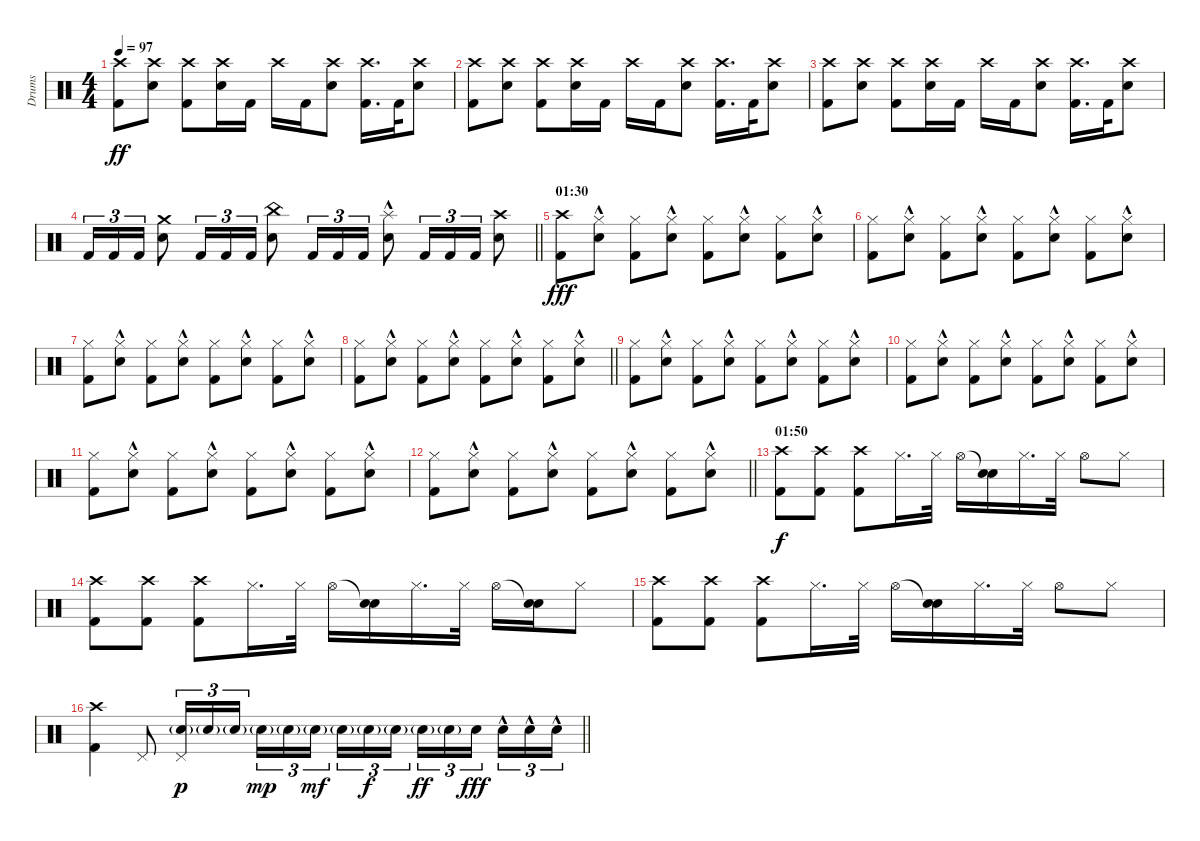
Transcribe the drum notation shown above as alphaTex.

\track ("Drums" "Drums") {instrument percussion}
\staff {score}
\articulation defaults
\ts (4 4)
\tempo 97
\clef neutral
\ks c
("Crash high (hit)" "Kick (hit) 2").8{dy ff} ("Crash high (hit)" "Electric Snare (hit)").8 ("Crash high (hit)" "Kick (hit) 2").8 ("Crash high (hit)" "Electric Snare (hit)").16 "Kick (hit) 2".16 "Crash high (hit)".16 "Kick (hit) 2".16 ("Crash high (hit)" "Electric Snare (hit)").8 ("Crash high (hit)" "Kick (hit) 2").16{d} "Kick (hit) 2".32 ("Crash high (hit)" "Electric Snare (hit)").8 |
("Crash high (hit)" "Kick (hit) 2").8 ("Crash high (hit)" "Electric Snare (hit)").8 ("Crash high (hit)" "Kick (hit) 2").8 ("Crash high (hit)" "Electric Snare (hit)").16 "Kick (hit) 2".16 "Crash high (hit)".16 "Kick (hit) 2".16 ("Crash high (hit)" "Electric Snare (hit)").8 ("Crash high (hit)" "Kick (hit) 2").16{d} "Kick (hit) 2".32 ("Crash high (hit)" "Electric Snare (hit)").8 |
("Crash high (hit)" "Kick (hit) 2").8 ("Crash high (hit)" "Electric Snare (hit)").8 ("Crash high (hit)" "Kick (hit) 2").8 ("Crash high (hit)" "Electric Snare (hit)").16 "Kick (hit) 2".16 "Crash high (hit)".16 "Kick (hit) 2".16 ("Crash high (hit)" "Electric Snare (hit)").8 ("Crash high (hit)" "Kick (hit) 2").16{d} "Kick (hit) 2".32 ("Crash high (hit)" "Electric Snare (hit)").8 |
\barLineRight lightlight "Kick (hit) 2".16{tu (3 2)} "Kick (hit) 2".16{tu (3 2)} "Kick (hit) 2".16{tu (3 2)}
("Crash medium (hit)" "Electric Snare (hit)").8 "Kick (hit) 2".16{tu (3 2)} "Kick (hit) 2".16{tu (3 2)} "Kick (hit) 2".16{tu (3 2)} ("China (hit)" "Electric Snare (hit)").8 "Kick (hit) 2".16{tu (3 2)} "Kick (hit) 2".16{tu (3 2)} "Kick (hit) 2".16{tu (3 2)} ("Splash (hit)"{hac} "Electric Snare (hit)").8 "Kick (hit) 2".16{tu (3 2)} "Kick (hit) 2".16{tu (3 2)} "Kick (hit) 2".16{tu (3 2)} ("Crash high (hit)" "Electric Snare (hit)").8 |
\section ("" "01:30")
("Crash high (hit)" "Kick (hit) 2").8{dy fff} ("Hi-Hat (closed)" "Electric Snare (hit)"{hac}).8 ("Hi-Hat (closed)" "Kick (hit) 2").8 ("Hi-Hat (closed)" "Electric Snare (hit)"{hac}).8 ("Hi-Hat (closed)" "Kick (hit) 2").8 ("Hi-Hat (closed)" "Electric Snare (hit)"{hac}).8 ("Hi-Hat (closed)" "Kick (hit) 2").8 ("Hi-Hat (closed)" "Electric Snare (hit)"{hac}).8 |
("Hi-Hat (closed)" "Kick (hit) 2").8 ("Hi-Hat (closed)" "Electric Snare (hit)"{hac}).8 ("Hi-Hat (closed)" "Kick (hit) 2").8 ("Hi-Hat (closed)" "Electric Snare (hit)"{hac}).8 ("Hi-Hat (closed)" "Kick (hit) 2").8 ("Hi-Hat (closed)" "Electric Snare (hit)"{hac}).8 ("Hi-Hat (closed)" "Kick (hit) 2").8 ("Hi-Hat (closed)" "Electric Snare (hit)"{hac}).8 |
("Hi-Hat (closed)" "Kick (hit) 2").8 ("Hi-Hat (closed)" "Electric Snare (hit)"{hac}).8 ("Hi-Hat (closed)" "Kick (hit) 2").8 ("Hi-Hat (closed)" "Electric Snare (hit)"{hac}).8 ("Hi-Hat (closed)" "Kick (hit) 2").8 ("Hi-Hat (closed)" "Electric Snare (hit)"{hac}).8 ("Hi-Hat (closed)" "Kick (hit) 2").8 ("Hi-Hat (closed)" "Electric Snare (hit)"{hac}).8 |
\barLineRight lightlight
("Hi-Hat (closed)" "Kick (hit) 2").8 ("Hi-Hat (closed)" "Electric Snare (hit)"{hac}).8 ("Hi-Hat (closed)" "Kick (hit) 2").8 ("Hi-Hat (closed)" "Electric Snare (hit)"{hac}).8 ("Hi-Hat (closed)" "Kick (hit) 2").8 ("Hi-Hat (closed)" "Electric Snare (hit)"{hac}).8 ("Hi-Hat (closed)" "Kick (hit) 2").8 ("Hi-Hat (closed)" "Electric Snare (hit)"{hac}).8 |
("Hi-Hat (closed)" "Kick (hit) 2").8 ("Hi-Hat (closed)" "Electric Snare (hit)"{hac}).8 ("Hi-Hat (closed)" "Kick (hit) 2").8 ("Hi-Hat (closed)" "Electric Snare (hit)"{hac}).8 ("Hi-Hat (closed)" "Kick (hit) 2").8 ("Hi-Hat (closed)" "Electric Snare (hit)"{hac}).8 ("Hi-Hat (closed)" "Kick (hit) 2").8 ("Hi-Hat (closed)" "Electric Snare (hit)"{hac}).8 |
("Hi-Hat (closed)" "Kick (hit) 2").8 ("Hi-Hat (closed)" "Electric Snare (hit)"{hac}).8 ("Hi-Hat (closed)" "Kick (hit) 2").8 ("Hi-Hat (closed)" "Electric Snare (hit)"{hac}).8 ("Hi-Hat (closed)" "Kick (hit) 2").8 ("Hi-Hat (closed)" "Electric Snare (hit)"{hac}).8 ("Hi-Hat (closed)" "Kick (hit) 2").8 ("Hi-Hat (closed)" "Electric Snare (hit)"{hac}).8 |
("Hi-Hat (closed)" "Kick (hit) 2").8 ("Hi-Hat (closed)" "Electric Snare (hit)"{hac}).8 ("Hi-Hat (closed)" "Kick (hit) 2").8 ("Hi-Hat (closed)" "Electric Snare (hit)"{hac}).8 ("Hi-Hat (closed)" "Kick (hit) 2").8 ("Hi-Hat (closed)" "Electric Snare (hit)"{hac}).8 ("Hi-Hat (closed)" "Kick (hit) 2").8 ("Hi-Hat (closed)" "Electric Snare (hit)"{hac}).8 |
\barLineRight lightlight
("Hi-Hat (closed)" "Kick (hit) 2").8 ("Hi-Hat (closed)" "Electric Snare (hit)"{hac}).8 ("Hi-Hat (closed)" "Kick (hit) 2").8 ("Hi-Hat (closed)" "Electric Snare (hit)"{hac}).8 ("Hi-Hat (closed)" "Kick (hit) 2").8 ("Hi-Hat (closed)" "Electric Snare (hit)"{hac}).8 ("Hi-Hat (closed)" "Kick (hit) 2").8 ("Hi-Hat (closed)" "Electric Snare (hit)"{hac}).8 |
\section ("" "01:50")
("Crash high (hit)" "Kick (hit) 2").8{dy f} ("Crash high (hit)" "Kick (hit) 2").8 ("Crash high (hit)" "Kick (hit) 2").8 "Hi-Hat (closed)".16{d} "Hi-Hat (closed)".32 "Hi-Hat (open)".16 ("Snare (hit)"{t} "Electric Snare (hit)").16 "Hi-Hat (closed)".16{d} "Hi-Hat (closed)".32 "Hi-Hat (open)".8 "Hi-Hat (closed)".8 |
("Crash high (hit)" "Kick (hit) 2").8 ("Crash high (hit)" "Kick (hit) 2").8 ("Crash high (hit)" "Kick (hit) 2").8 "Hi-Hat (closed)".16{d} "Hi-Hat (closed)".32 "Hi-Hat (open)".16 ("Snare (hit)"{t} "Electric Snare (hit)").16 "Hi-Hat (closed)".16{d} "Hi-Hat (closed)".32 "Hi-Hat (open)".16 ("Snare (hit)"{t} "Electric Snare (hit)").16 "Hi-Hat (closed)".8 |
("Crash high (hit)" "Kick (hit) 2").8 ("Crash high (hit)" "Kick (hit) 2").8 ("Crash high (hit)" "Kick (hit) 2").8 "Hi-Hat (closed)".16{d} "Hi-Hat (closed)".32 "Hi-Hat (open)".16 ("Snare (hit)"{t} "Electric Snare (hit)").16 "Hi-Hat (closed)".16{d} "Hi-Hat (closed)".32 "Hi-Hat (open)".8 "Hi-Hat (closed)".8 |
\barLineRight lightlight
("Crash high (hit)" "Kick (hit) 2").4 "Pedal Hi-Hat (hit)".8 ("Pedal Hi-Hat (hit)" "Electric Snare (hit)"{g}).16{tu (3 2) dy p} "Electric Snare (hit)"{g}.16{tu (3 2)} "Electric Snare (hit)"{g}.16{tu (3 2)} "Electric Snare (hit)"{g}.16{tu (3 2) dy mp} "Electric Snare (hit)"{g}.16{tu (3 2)} "Electric Snare (hit)"{g}.16{tu (3 2) dy mf beam splitsecondary} "Electric Snare (hit)"{g}.16{tu (3 2)} "Electric Snare (hit)"{g}.16{tu (3 2) dy f} "Electric Snare (hit)"{g}.16{tu (3 2)} "Electric Snare (hit)"{g}.16{tu (3 2) dy ff} "Electric Snare (hit)"{g}.16{tu (3 2)} "Electric Snare (hit)".16{tu (3 2) dy fff beam splitsecondary} "Electric Snare (hit)"{hac}.16{tu (3 2)} "Electric Snare (hit)"{hac}.16{tu (3 2)} "Electric Snare (hit)"{hac}.16{tu (3 2)}
